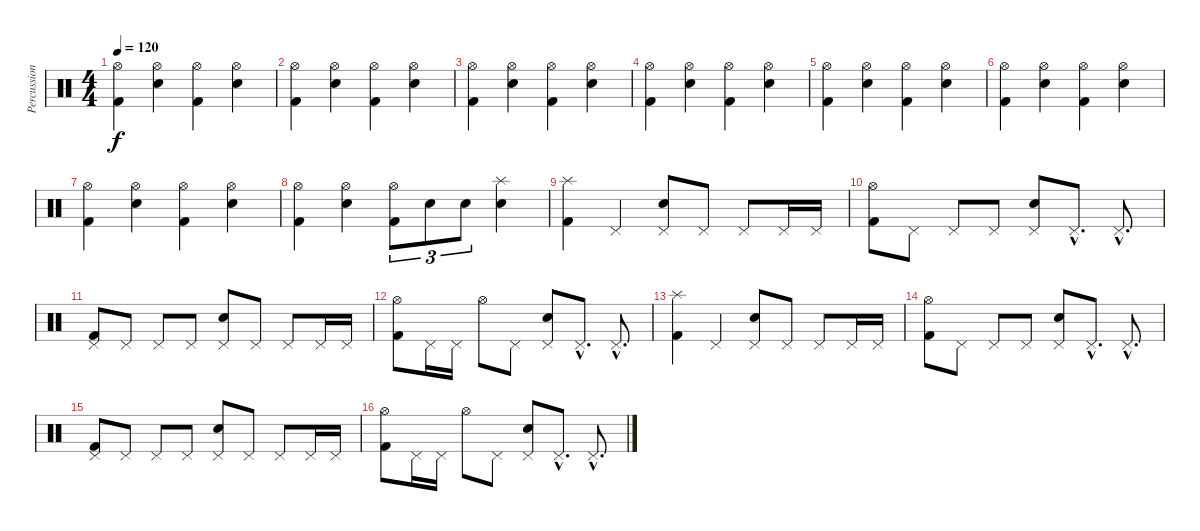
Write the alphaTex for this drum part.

\track ("Percussion" "Percussion") {instrument percussion}
\staff {score}
\articulation defaults
\ts (4 4)
\tempo 120
\clef neutral
\ks c
("Kick (hit) 2" "Hi-Hat (open)").4{dy f} ("Electric Snare (hit)" "Hi-Hat (open)").4 ("Kick (hit) 2" "Hi-Hat (open)").4 ("Electric Snare (hit)" "Hi-Hat (open)").4 |
("Kick (hit) 2" "Hi-Hat (open)").4 ("Electric Snare (hit)" "Hi-Hat (open)").4 ("Kick (hit) 2" "Hi-Hat (open)").4 ("Electric Snare (hit)" "Hi-Hat (open)").4 |
("Kick (hit) 2" "Hi-Hat (open)").4 ("Electric Snare (hit)" "Hi-Hat (open)").4 ("Kick (hit) 2" "Hi-Hat (open)").4 ("Electric Snare (hit)" "Hi-Hat (open)").4 |
("Kick (hit) 2" "Hi-Hat (open)").4 ("Electric Snare (hit)" "Hi-Hat (open)").4 ("Kick (hit) 2" "Hi-Hat (open)").4 ("Electric Snare (hit)" "Hi-Hat (open)").4 |
("Kick (hit) 2" "Hi-Hat (open)").4 ("Electric Snare (hit)" "Hi-Hat (open)").4 ("Kick (hit) 2" "Hi-Hat (open)").4 ("Electric Snare (hit)" "Hi-Hat (open)").4 |
("Kick (hit) 2" "Hi-Hat (open)").4 ("Electric Snare (hit)" "Hi-Hat (open)").4 ("Kick (hit) 2" "Hi-Hat (open)").4 ("Electric Snare (hit)" "Hi-Hat (open)").4 |
("Kick (hit) 2" "Hi-Hat (open)").4 ("Electric Snare (hit)" "Hi-Hat (open)").4 ("Kick (hit) 2" "Hi-Hat (open)").4 ("Electric Snare (hit)" "Hi-Hat (open)").4 |
("Kick (hit) 2" "Hi-Hat (open)").4 ("Electric Snare (hit)" "Hi-Hat (open)").4 ("Kick (hit) 2" "Hi-Hat (open)").8{tu (3 2)} "Electric Snare (hit)".8{tu (3 2)} "Electric Snare (hit)".8{tu (3 2)} ("Electric Snare (hit)" "Splash (hit)").4 |
("Kick (hit) 2" "Splash (hit)").4 "Pedal Hi-Hat (hit)".4 ("Electric Snare (hit)" "Pedal Hi-Hat (hit)").8 "Pedal Hi-Hat (hit)".8 "Pedal Hi-Hat (hit)".8 "Pedal Hi-Hat (hit)".16 "Pedal Hi-Hat (hit)".16 |
("Kick (hit) 2" "Hi-Hat (open)").8 "Pedal Hi-Hat (hit)".8 "Pedal Hi-Hat (hit)".8 "Pedal Hi-Hat (hit)".8 ("Electric Snare (hit)" "Pedal Hi-Hat (hit)").8 "Pedal Hi-Hat (hit)"{hac}.8{d} "Pedal Hi-Hat (hit)"{hac}.8{d} |
("Kick (hit) 2" "Pedal Hi-Hat (hit)").8 "Pedal Hi-Hat (hit)".8 "Pedal Hi-Hat (hit)".8 "Pedal Hi-Hat (hit)".8 ("Electric Snare (hit)" "Pedal Hi-Hat (hit)").8 "Pedal Hi-Hat (hit)".8 "Pedal Hi-Hat (hit)".8 "Pedal Hi-Hat (hit)".16 "Pedal Hi-Hat (hit)".16 |
("Kick (hit) 2" "Hi-Hat (open)").8 "Pedal Hi-Hat (hit)".16 "Pedal Hi-Hat (hit)".16 "Hi-Hat (open)".8 "Pedal Hi-Hat (hit)".8 ("Electric Snare (hit)" "Pedal Hi-Hat (hit)").8 "Pedal Hi-Hat (hit)"{hac}.8{d} "Pedal Hi-Hat (hit)"{hac}.8{d} |
("Kick (hit) 2" "Splash (hit)").4 "Pedal Hi-Hat (hit)".4 ("Electric Snare (hit)" "Pedal Hi-Hat (hit)").8 "Pedal Hi-Hat (hit)".8 "Pedal Hi-Hat (hit)".8 "Pedal Hi-Hat (hit)".16 "Pedal Hi-Hat (hit)".16 |
("Kick (hit) 2" "Hi-Hat (open)").8 "Pedal Hi-Hat (hit)".8 "Pedal Hi-Hat (hit)".8 "Pedal Hi-Hat (hit)".8 ("Electric Snare (hit)" "Pedal Hi-Hat (hit)").8 "Pedal Hi-Hat (hit)"{hac}.8{d} "Pedal Hi-Hat (hit)"{hac}.8{d} |
("Kick (hit) 2" "Pedal Hi-Hat (hit)").8 "Pedal Hi-Hat (hit)".8 "Pedal Hi-Hat (hit)".8 "Pedal Hi-Hat (hit)".8 ("Electric Snare (hit)" "Pedal Hi-Hat (hit)").8 "Pedal Hi-Hat (hit)".8 "Pedal Hi-Hat (hit)".8 "Pedal Hi-Hat (hit)".16 "Pedal Hi-Hat (hit)".16 |
("Kick (hit) 2" "Hi-Hat (open)").8 "Pedal Hi-Hat (hit)".16 "Pedal Hi-Hat (hit)".16 "Hi-Hat (open)".8 "Pedal Hi-Hat (hit)".8 ("Electric Snare (hit)" "Pedal Hi-Hat (hit)").8 "Pedal Hi-Hat (hit)"{hac}.8{d} "Pedal Hi-Hat (hit)"{hac}.8{d}
